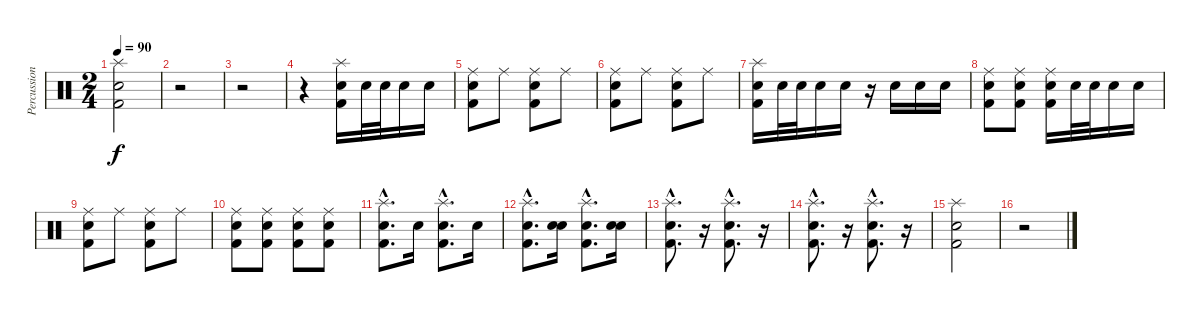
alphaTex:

\track ("Percussion" "Percussion") {instrument percussion}
\staff {score}
\articulation defaults
\ts (2 4)
\tempo 90
\clef neutral
\ks c
("Splash (hit)" "Snare (hit) 2" "Kick (hit) 2").2{dy f} |
r.2 |
r.2 |
r.4 ("Splash (hit)" "Electric Snare (hit)" "Kick (hit) 2").16 "Electric Snare (hit)".32 "Electric Snare (hit)".32 "Electric Snare (hit)".16 "Electric Snare (hit)".16 |
("Ride (middle)" "Electric Snare (hit)" "Kick (hit) 2").8 "Ride (middle)".8 ("Ride (middle)" "Electric Snare (hit)" "Kick (hit) 2").8 "Ride (middle)".8 |
("Ride (middle)" "Electric Snare (hit)" "Kick (hit) 2").8 "Ride (middle)".8 ("Ride (middle)" "Electric Snare (hit)" "Kick (hit) 2").8 "Ride (middle)".8 |
("Splash (hit)" "Electric Snare (hit)" "Kick (hit) 2").16 "Electric Snare (hit)".32 "Electric Snare (hit)".32 "Electric Snare (hit)".16 "Electric Snare (hit)".16 r.16 "Electric Snare (hit)".16 "Electric Snare (hit)".16 "Electric Snare (hit)".16 |
("Ride (middle)" "Electric Snare (hit)" "Kick (hit) 2").8 ("Ride (middle)" "Electric Snare (hit)" "Kick (hit) 2").8 ("Ride (middle)" "Electric Snare (hit)" "Kick (hit) 2").16 "Electric Snare (hit)".32 "Electric Snare (hit)".32 "Electric Snare (hit)".16 "Electric Snare (hit)".16 |
("Ride (middle)" "Electric Snare (hit)" "Kick (hit) 2").8 "Ride (middle)".8 ("Ride (middle)" "Electric Snare (hit)" "Kick (hit) 2").8 "Ride (middle)".8 |
("Ride (middle)" "Electric Snare (hit)" "Kick (hit) 2").8 ("Ride (middle)" "Electric Snare (hit)" "Kick (hit) 2").8 ("Ride (middle)" "Electric Snare (hit)" "Kick (hit) 2").8 ("Ride (middle)" "Electric Snare (hit)" "Kick (hit) 2").8 |
("Splash (hit)"{hac} "Snare (hit) 2"{hac} "Kick (hit) 2"{hac}).8{d} "Electric Snare (hit)".16 ("Splash (hit)"{hac} "Snare (hit) 2"{hac} "Kick (hit) 2"{hac}).8{d} "Electric Snare (hit)".16 |
("Splash (hit)"{hac} "Snare (hit) 2"{hac} "Kick (hit) 2"{hac}).8{d} ("Snare (hit) 2" "Electric Snare (hit)").16 ("Splash (hit)"{hac} "Snare (hit) 2"{hac} "Kick (hit) 2"{hac}).8{d} ("Snare (hit) 2" "Electric Snare (hit)").16 |
("Splash (hit)"{hac} "Snare (hit) 2"{hac} "Kick (hit) 2"{hac}).8{d} r.16 ("Splash (hit)"{hac} "Snare (hit) 2"{hac} "Kick (hit) 2"{hac}).8{d} r.16 |
("Splash (hit)"{hac} "Snare (hit) 2"{hac} "Kick (hit) 2"{hac}).8{d} r.16 ("Splash (hit)"{hac} "Snare (hit) 2"{hac} "Kick (hit) 2"{hac}).8{d} r.16 |
("Splash (hit)" "Snare (hit) 2" "Kick (hit) 2").2 |
r.2
